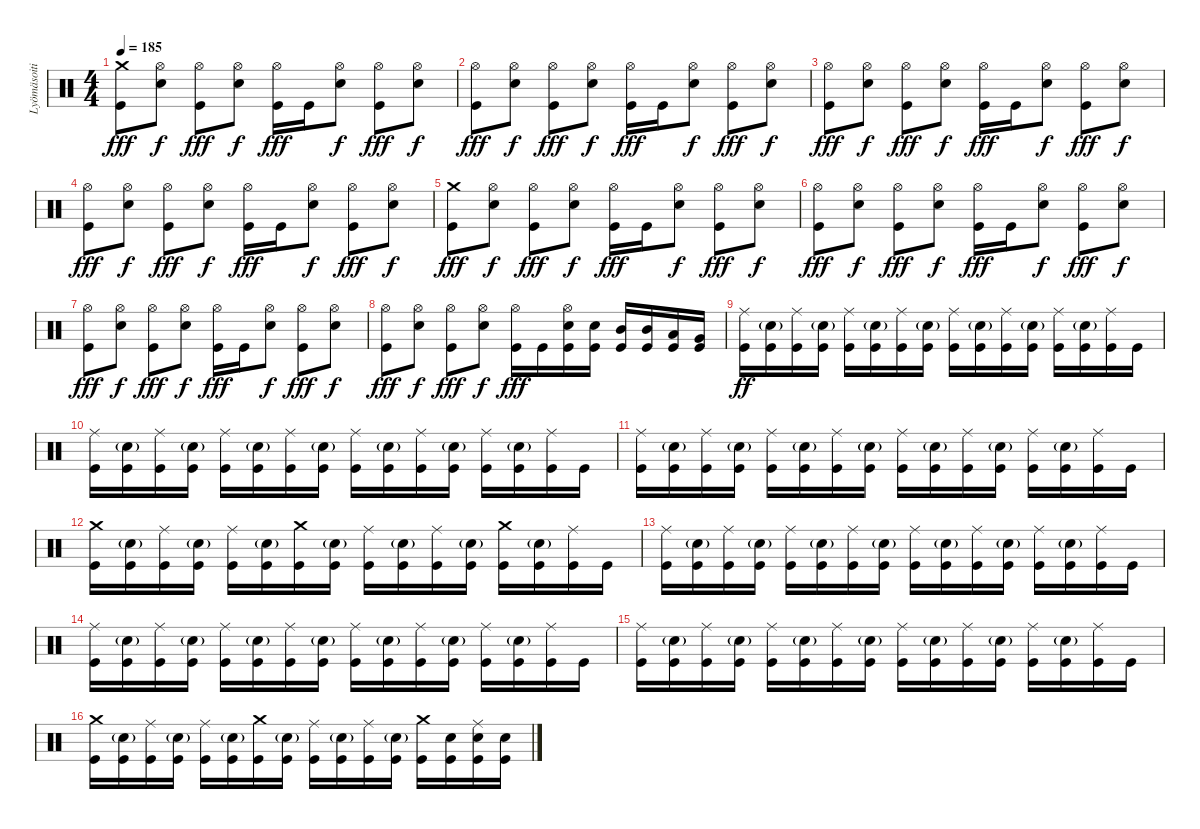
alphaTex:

\track ("Lyömäsoitin" "Lyömäsoiti") {instrument percussion}
\staff {score}
\articulation defaults
\ts (4 4)
\tempo 185
\clef neutral
\ks c
("Crash medium (hit)" "Kick (hit)").8{dy fff} ("Hi-Hat (open)" "Electric Snare (hit)").8{dy f} ("Hi-Hat (open)" "Kick (hit)").8{dy fff} ("Hi-Hat (open)" "Electric Snare (hit)").8{dy f} ("Hi-Hat (open)" "Kick (hit)").16{dy fff} "Kick (hit)".16 ("Hi-Hat (open)" "Electric Snare (hit)").8{dy f} ("Hi-Hat (open)" "Kick (hit)").8{dy fff} ("Hi-Hat (open)" "Electric Snare (hit)").8{dy f} |
("Hi-Hat (open)" "Kick (hit)").8{dy fff} ("Hi-Hat (open)" "Electric Snare (hit)").8{dy f} ("Hi-Hat (open)" "Kick (hit)").8{dy fff} ("Hi-Hat (open)" "Electric Snare (hit)").8{dy f} ("Hi-Hat (open)" "Kick (hit)").16{dy fff} "Kick (hit)".16 ("Hi-Hat (open)" "Electric Snare (hit)").8{dy f} ("Hi-Hat (open)" "Kick (hit)").8{dy fff} ("Hi-Hat (open)" "Electric Snare (hit)").8{dy f} |
("Hi-Hat (open)" "Kick (hit)").8{dy fff} ("Hi-Hat (open)" "Electric Snare (hit)").8{dy f} ("Hi-Hat (open)" "Kick (hit)").8{dy fff} ("Hi-Hat (open)" "Electric Snare (hit)").8{dy f} ("Hi-Hat (open)" "Kick (hit)").16{dy fff} "Kick (hit)".16 ("Hi-Hat (open)" "Electric Snare (hit)").8{dy f} ("Hi-Hat (open)" "Kick (hit)").8{dy fff} ("Hi-Hat (open)" "Electric Snare (hit)").8{dy f} |
("Hi-Hat (open)" "Kick (hit)").8{dy fff} ("Hi-Hat (open)" "Electric Snare (hit)").8{dy f} ("Hi-Hat (open)" "Kick (hit)").8{dy fff} ("Hi-Hat (open)" "Electric Snare (hit)").8{dy f} ("Hi-Hat (open)" "Kick (hit)").16{dy fff} "Kick (hit)".16 ("Hi-Hat (open)" "Electric Snare (hit)").8{dy f} ("Hi-Hat (open)" "Kick (hit)").8{dy fff} ("Hi-Hat (open)" "Electric Snare (hit)").8{dy f} |
("Crash medium (hit)" "Kick (hit)").8{dy fff} ("Hi-Hat (open)" "Electric Snare (hit)").8{dy f} ("Hi-Hat (open)" "Kick (hit)").8{dy fff} ("Hi-Hat (open)" "Electric Snare (hit)").8{dy f} ("Hi-Hat (open)" "Kick (hit)").16{dy fff} "Kick (hit)".16 ("Hi-Hat (open)" "Electric Snare (hit)").8{dy f} ("Hi-Hat (open)" "Kick (hit)").8{dy fff} ("Hi-Hat (open)" "Electric Snare (hit)").8{dy f} |
("Hi-Hat (open)" "Kick (hit)").8{dy fff} ("Hi-Hat (open)" "Electric Snare (hit)").8{dy f} ("Hi-Hat (open)" "Kick (hit)").8{dy fff} ("Hi-Hat (open)" "Electric Snare (hit)").8{dy f} ("Hi-Hat (open)" "Kick (hit)").16{dy fff} "Kick (hit)".16 ("Hi-Hat (open)" "Electric Snare (hit)").8{dy f} ("Hi-Hat (open)" "Kick (hit)").8{dy fff} ("Hi-Hat (open)" "Electric Snare (hit)").8{dy f} |
("Hi-Hat (open)" "Kick (hit)").8{dy fff} ("Hi-Hat (open)" "Electric Snare (hit)").8{dy f} ("Hi-Hat (open)" "Kick (hit)").8{dy fff} ("Hi-Hat (open)" "Electric Snare (hit)").8{dy f} ("Hi-Hat (open)" "Kick (hit)").16{dy fff} "Kick (hit)".16 ("Hi-Hat (open)" "Electric Snare (hit)").8{dy f} ("Hi-Hat (open)" "Kick (hit)").8{dy fff} ("Hi-Hat (open)" "Electric Snare (hit)").8{dy f} |
("Hi-Hat (open)" "Kick (hit)").8{dy fff} ("Hi-Hat (open)" "Electric Snare (hit)").8{dy f} ("Hi-Hat (open)" "Kick (hit)").8{dy fff} ("Hi-Hat (open)" "Electric Snare (hit)").8{dy f} ("Hi-Hat (open)" "Kick (hit)").16{dy fff} "Kick (hit)".16 ("Hi-Hat (open)" "Electric Snare (hit)" "Kick (hit)").16 ("Electric Snare (hit)" "Kick (hit)").16 ("Mid Tom (hit)" "Kick (hit)").16 ("Mid Tom (hit)" "Kick (hit)").16 ("Low Tom (hit)" "Kick (hit)").16 ("Very Low Tom (hit)" "Kick (hit)").16 |
("Ride (middle)" "Kick (hit)").16{dy ff} ("Electric Snare (hit)"{g} "Kick (hit)").16 ("Ride (middle)" "Kick (hit)").16 ("Electric Snare (hit)"{g} "Kick (hit)").16 ("Ride (middle)" "Kick (hit)").16 ("Electric Snare (hit)"{g} "Kick (hit)").16 ("Ride (middle)" "Kick (hit)").16 ("Electric Snare (hit)"{g} "Kick (hit)").16 ("Ride (middle)" "Kick (hit)").16 ("Electric Snare (hit)"{g} "Kick (hit)").16 ("Ride (middle)" "Kick (hit)").16 ("Electric Snare (hit)"{g} "Kick (hit)").16 ("Ride (middle)" "Kick (hit)").16 ("Electric Snare (hit)"{g} "Kick (hit)").16 ("Ride (middle)" "Kick (hit)").16 "Kick (hit)".16 |
("Ride (middle)" "Kick (hit)").16 ("Electric Snare (hit)"{g} "Kick (hit)").16 ("Ride (middle)" "Kick (hit)").16 ("Electric Snare (hit)"{g} "Kick (hit)").16 ("Ride (middle)" "Kick (hit)").16 ("Electric Snare (hit)"{g} "Kick (hit)").16 ("Ride (middle)" "Kick (hit)").16 ("Electric Snare (hit)"{g} "Kick (hit)").16 ("Ride (middle)" "Kick (hit)").16 ("Electric Snare (hit)"{g} "Kick (hit)").16 ("Ride (middle)" "Kick (hit)").16 ("Electric Snare (hit)"{g} "Kick (hit)").16 ("Ride (middle)" "Kick (hit)").16 ("Electric Snare (hit)"{g} "Kick (hit)").16 ("Ride (middle)" "Kick (hit)").16 "Kick (hit)".16 |
("Ride (middle)" "Kick (hit)").16 ("Electric Snare (hit)"{g} "Kick (hit)").16 ("Ride (middle)" "Kick (hit)").16 ("Electric Snare (hit)"{g} "Kick (hit)").16 ("Ride (middle)" "Kick (hit)").16 ("Electric Snare (hit)"{g} "Kick (hit)").16 ("Ride (middle)" "Kick (hit)").16 ("Electric Snare (hit)"{g} "Kick (hit)").16 ("Ride (middle)" "Kick (hit)").16 ("Electric Snare (hit)"{g} "Kick (hit)").16 ("Ride (middle)" "Kick (hit)").16 ("Electric Snare (hit)"{g} "Kick (hit)").16 ("Ride (middle)" "Kick (hit)").16 ("Electric Snare (hit)"{g} "Kick (hit)").16 ("Ride (middle)" "Kick (hit)").16 "Kick (hit)".16 |
("Crash medium (hit)" "Kick (hit)").16 ("Electric Snare (hit)"{g} "Kick (hit)").16 ("Ride (middle)" "Kick (hit)").16 ("Electric Snare (hit)"{g} "Kick (hit)").16 ("Ride (middle)" "Kick (hit)").16 ("Electric Snare (hit)"{g} "Kick (hit)").16 ("Crash medium (hit)" "Kick (hit)").16 ("Electric Snare (hit)"{g} "Kick (hit)").16 ("Ride (middle)" "Kick (hit)").16 ("Electric Snare (hit)"{g} "Kick (hit)").16 ("Ride (middle)" "Kick (hit)").16 ("Electric Snare (hit)"{g} "Kick (hit)").16 ("Crash medium (hit)" "Kick (hit)").16 ("Electric Snare (hit)"{g} "Kick (hit)").16 ("Ride (middle)" "Kick (hit)").16 "Kick (hit)".16 |
("Ride (middle)" "Kick (hit)").16 ("Electric Snare (hit)"{g} "Kick (hit)").16 ("Ride (middle)" "Kick (hit)").16 ("Electric Snare (hit)"{g} "Kick (hit)").16 ("Ride (middle)" "Kick (hit)").16 ("Electric Snare (hit)"{g} "Kick (hit)").16 ("Ride (middle)" "Kick (hit)").16 ("Electric Snare (hit)"{g} "Kick (hit)").16 ("Ride (middle)" "Kick (hit)").16 ("Electric Snare (hit)"{g} "Kick (hit)").16 ("Ride (middle)" "Kick (hit)").16 ("Electric Snare (hit)"{g} "Kick (hit)").16 ("Ride (middle)" "Kick (hit)").16 ("Electric Snare (hit)"{g} "Kick (hit)").16 ("Ride (middle)" "Kick (hit)").16 "Kick (hit)".16 |
("Ride (middle)" "Kick (hit)").16 ("Electric Snare (hit)"{g} "Kick (hit)").16 ("Ride (middle)" "Kick (hit)").16 ("Electric Snare (hit)"{g} "Kick (hit)").16 ("Ride (middle)" "Kick (hit)").16 ("Electric Snare (hit)"{g} "Kick (hit)").16 ("Ride (middle)" "Kick (hit)").16 ("Electric Snare (hit)"{g} "Kick (hit)").16 ("Ride (middle)" "Kick (hit)").16 ("Electric Snare (hit)"{g} "Kick (hit)").16 ("Ride (middle)" "Kick (hit)").16 ("Electric Snare (hit)"{g} "Kick (hit)").16 ("Ride (middle)" "Kick (hit)").16 ("Electric Snare (hit)"{g} "Kick (hit)").16 ("Ride (middle)" "Kick (hit)").16 "Kick (hit)".16 |
("Ride (middle)" "Kick (hit)").16 ("Electric Snare (hit)"{g} "Kick (hit)").16 ("Ride (middle)" "Kick (hit)").16 ("Electric Snare (hit)"{g} "Kick (hit)").16 ("Ride (middle)" "Kick (hit)").16 ("Electric Snare (hit)"{g} "Kick (hit)").16 ("Ride (middle)" "Kick (hit)").16 ("Electric Snare (hit)"{g} "Kick (hit)").16 ("Ride (middle)" "Kick (hit)").16 ("Electric Snare (hit)"{g} "Kick (hit)").16 ("Ride (middle)" "Kick (hit)").16 ("Electric Snare (hit)"{g} "Kick (hit)").16 ("Ride (middle)" "Kick (hit)").16 ("Electric Snare (hit)"{g} "Kick (hit)").16 ("Ride (middle)" "Kick (hit)").16 "Kick (hit)".16 |
("Crash medium (hit)" "Kick (hit)").16 ("Electric Snare (hit)"{g} "Kick (hit)").16 ("Ride (middle)" "Kick (hit)").16 ("Electric Snare (hit)"{g} "Kick (hit)").16 ("Ride (middle)" "Kick (hit)").16 ("Electric Snare (hit)"{g} "Kick (hit)").16 ("Crash medium (hit)" "Kick (hit)").16 ("Electric Snare (hit)"{g} "Kick (hit)").16 ("Ride (middle)" "Kick (hit)").16 ("Electric Snare (hit)"{g} "Kick (hit)").16 ("Ride (middle)" "Kick (hit)").16 ("Electric Snare (hit)"{g} "Kick (hit)").16 ("Crash medium (hit)" "Kick (hit)").16 ("Electric Snare (hit)" "Kick (hit)").16 ("Ride (middle)" "Electric Snare (hit)" "Kick (hit)").16 ("Electric Snare (hit)" "Kick (hit)").16
